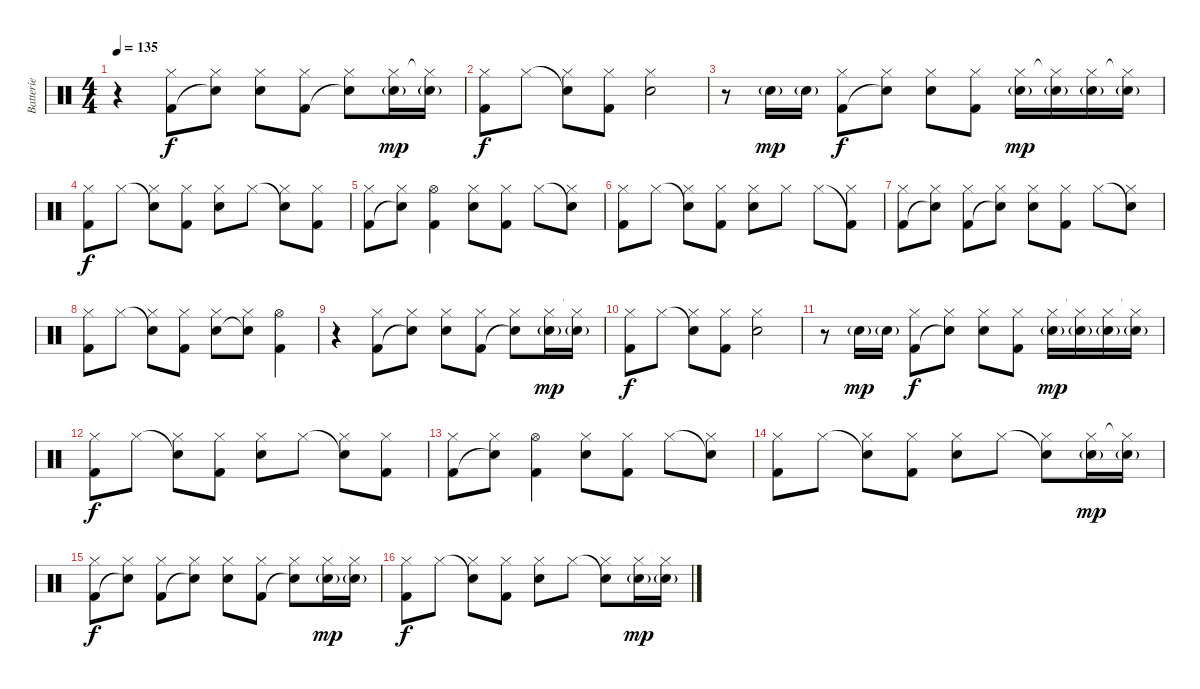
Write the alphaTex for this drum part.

\track ("Batterie" "Batterie") {instrument percussion}
\staff {score}
\articulation defaults
\ts (4 4)
\tempo 135
\clef neutral
\ks c
r.4{dy f} ("Kick (hit) 2" "Hi-Hat (closed)").8 ("Snare (hit)"{t} "Hi-Hat (closed)").8 ("Snare (hit) 2" "Hi-Hat (closed)").8 ("Kick (hit) 2" "Hi-Hat (closed)").8 ("Snare (hit)"{t} "Hi-Hat (closed)").8 ("Snare (hit) 2"{g} "Hi-Hat (closed)").16{dy mp} ("Snare (hit) 2"{g} "Hi-Hat (closed)"{t}).16 |
("Kick (hit) 2" "Hi-Hat (closed)").8{dy f} "Hi-Hat (closed)".8 ("Snare (hit)"{t} "Hi-Hat (closed)").8 ("Kick (hit) 2" "Hi-Hat (closed)").8 ("Snare (hit) 2" "Hi-Hat (closed)").2 |
r.8 "Snare (hit) 2"{g}.16{dy mp} "Snare (hit) 2"{g}.16 ("Kick (hit) 2" "Hi-Hat (closed)").8{dy f} ("Snare (hit)"{t} "Hi-Hat (closed)").8 ("Snare (hit) 2" "Hi-Hat (closed)").8 ("Kick (hit) 2" "Hi-Hat (closed)").8 ("Snare (hit) 2"{g} "Hi-Hat (closed)").16{dy mp} ("Snare (hit) 2"{g} "Hi-Hat (closed)"{t}).16 ("Snare (hit) 2"{g} "Hi-Hat (closed)").16 ("Snare (hit) 2"{g} "Hi-Hat (closed)"{t}).16 |
("Kick (hit) 2" "Hi-Hat (closed)").8{dy f} "Hi-Hat (closed)".8 ("Snare (hit)"{t} "Hi-Hat (closed)").8 ("Kick (hit) 2" "Hi-Hat (closed)").8 ("Snare (hit) 2" "Hi-Hat (closed)").8 "Hi-Hat (closed)".8 ("Snare (hit)"{t} "Hi-Hat (closed)").8 ("Kick (hit) 2" "Hi-Hat (closed)").8 |
("Kick (hit) 2" "Hi-Hat (closed)").8 ("Snare (hit)"{t} "Hi-Hat (closed)").8 ("Kick (hit) 2" "Hi-Hat (open)").4 ("Snare (hit) 2" "Hi-Hat (closed)").8 ("Kick (hit) 2" "Hi-Hat (closed)").8 "Hi-Hat (closed)".8 ("Snare (hit)"{t} "Hi-Hat (closed)").8 |
("Kick (hit) 2" "Hi-Hat (closed)").8 "Hi-Hat (closed)".8 ("Snare (hit)"{t} "Hi-Hat (closed)").8 ("Kick (hit) 2" "Hi-Hat (closed)").8 ("Snare (hit) 2" "Hi-Hat (closed)").8 "Hi-Hat (closed)".8 "Hi-Hat (closed)".8 ("Kick (hit) 2"{t} "Hi-Hat (closed)").8 |
("Kick (hit) 2" "Hi-Hat (closed)").8 ("Snare (hit)"{t} "Hi-Hat (closed)").8 ("Kick (hit) 2" "Hi-Hat (closed)").8 ("Snare (hit)"{t} "Hi-Hat (closed)").8 ("Snare (hit) 2" "Hi-Hat (closed)").8 ("Kick (hit) 2" "Hi-Hat (closed)").8 "Hi-Hat (closed)".8 ("Snare (hit)"{t} "Hi-Hat (closed)").8 |
("Kick (hit) 2" "Hi-Hat (closed)").8 "Hi-Hat (closed)".8 ("Snare (hit)"{t} "Hi-Hat (closed)").8 ("Kick (hit) 2" "Hi-Hat (closed)").8 ("Snare (hit) 2" "Hi-Hat (closed)").8 ("Snare (hit)"{t} "Hi-Hat (closed)").8 ("Kick (hit) 2" "Hi-Hat (open)").4 |
r.4 ("Kick (hit) 2" "Hi-Hat (closed)").8 ("Snare (hit)"{t} "Hi-Hat (closed)").8 ("Snare (hit) 2" "Hi-Hat (closed)").8 ("Kick (hit) 2" "Hi-Hat (closed)").8 ("Snare (hit)"{t} "Hi-Hat (closed)").8 ("Snare (hit) 2"{g} "Hi-Hat (closed)").16{dy mp} ("Snare (hit) 2"{g} "Hi-Hat (closed)"{t}).16 |
("Kick (hit) 2" "Hi-Hat (closed)").8{dy f} "Hi-Hat (closed)".8 ("Snare (hit)"{t} "Hi-Hat (closed)").8 ("Kick (hit) 2" "Hi-Hat (closed)").8 ("Snare (hit) 2" "Hi-Hat (closed)").2 |
r.8 "Snare (hit) 2"{g}.16{dy mp} "Snare (hit) 2"{g}.16 ("Kick (hit) 2" "Hi-Hat (closed)").8{dy f} ("Snare (hit)"{t} "Hi-Hat (closed)").8 ("Snare (hit) 2" "Hi-Hat (closed)").8 ("Kick (hit) 2" "Hi-Hat (closed)").8 ("Snare (hit) 2"{g} "Hi-Hat (closed)").16{dy mp} ("Snare (hit) 2"{g} "Hi-Hat (closed)"{t}).16 ("Snare (hit) 2"{g} "Hi-Hat (closed)").16 ("Snare (hit) 2"{g} "Hi-Hat (closed)"{t}).16 |
("Kick (hit) 2" "Hi-Hat (closed)").8{dy f} "Hi-Hat (closed)".8 ("Snare (hit)"{t} "Hi-Hat (closed)").8 ("Kick (hit) 2" "Hi-Hat (closed)").8 ("Snare (hit) 2" "Hi-Hat (closed)").8 "Hi-Hat (closed)".8 ("Snare (hit)"{t} "Hi-Hat (closed)").8 ("Kick (hit) 2" "Hi-Hat (closed)").8 |
("Kick (hit) 2" "Hi-Hat (closed)").8 ("Snare (hit)"{t} "Hi-Hat (closed)").8 ("Kick (hit) 2" "Hi-Hat (open)").4 ("Snare (hit) 2" "Hi-Hat (closed)").8 ("Kick (hit) 2" "Hi-Hat (closed)").8 "Hi-Hat (closed)".8 ("Snare (hit)"{t} "Hi-Hat (closed)").8 |
("Kick (hit) 2" "Hi-Hat (closed)").8 "Hi-Hat (closed)".8 ("Snare (hit)"{t} "Hi-Hat (closed)").8 ("Kick (hit) 2" "Hi-Hat (closed)").8 ("Snare (hit) 2" "Hi-Hat (closed)").8 "Hi-Hat (closed)".8 ("Snare (hit)"{t} "Hi-Hat (closed)").8 ("Snare (hit) 2"{g} "Hi-Hat (closed)").16{dy mp} ("Snare (hit) 2"{g} "Hi-Hat (closed)"{t}).16 |
("Kick (hit) 2" "Hi-Hat (closed)").8{dy f} ("Snare (hit)"{t} "Hi-Hat (closed)").8 ("Kick (hit) 2" "Hi-Hat (closed)").8 ("Snare (hit) 2"{t} "Hi-Hat (closed)").8 ("Snare (hit) 2" "Hi-Hat (closed)").8 ("Kick (hit) 2" "Hi-Hat (closed)").8 ("Snare (hit)"{t} "Hi-Hat (closed)").8 ("Snare (hit) 2"{g} "Hi-Hat (closed)").16{dy mp} ("Snare (hit) 2"{g} "Hi-Hat (closed)"{t}).16 |
("Kick (hit) 2" "Hi-Hat (closed)").8{dy f} "Hi-Hat (closed)".8 ("Snare (hit)"{t} "Hi-Hat (closed)").8 ("Kick (hit) 2" "Hi-Hat (closed)").8 ("Snare (hit) 2" "Hi-Hat (closed)").8 "Hi-Hat (closed)".8 ("Snare (hit)"{t} "Hi-Hat (closed)").8 ("Snare (hit) 2"{g} "Hi-Hat (closed)").16{dy mp} ("Snare (hit) 2"{g} "Hi-Hat (closed)"{t}).16
